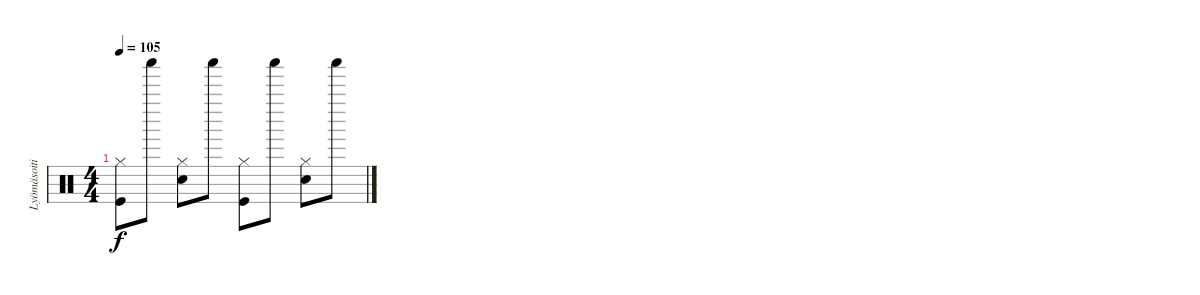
\track ("Lyömäsoitin" "Lyömäsoiti") {instrument percussion}
\staff {score}
\articulation defaults
\ts (4 4)
\tempo 105
\clef neutral
\ks c
("Kick (hit)" "Hi-Hat (closed)").8{dy f} "Shaker (hit)".8 ("Electric Snare (hit)" "Hi-Hat (closed)").8 "Shaker (hit)".8 ("Kick (hit)" "Hi-Hat (closed)").8 "Shaker (hit)".8 ("Electric Snare (hit)" "Hi-Hat (closed)").8 "Shaker (hit)".8
